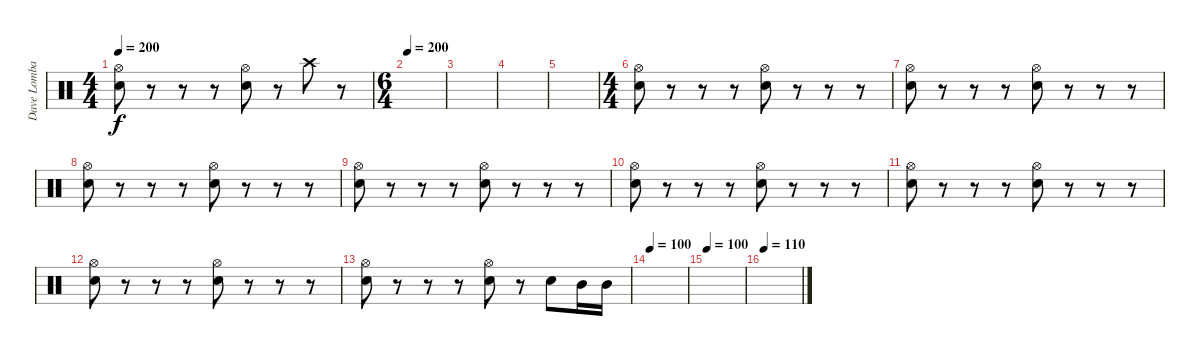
\track ("Dave Lombardo:" "Dave Lomba") {instrument percussion}
\staff {score}
\articulation defaults
\ts (4 4)
\tempo 200
\clef neutral
\ks c
("Hi-Hat (open)" "Electric Snare (hit)").8{dy f} r.8 r.8 r.8 ("Hi-Hat (open)" "Electric Snare (hit)").8 r.8 "Crash high (hit)".8 r.8 |
\ts (6 4)
\tempo 200
|
|
|
|
\ts (4 4)
("Hi-Hat (open)" "Electric Snare (hit)").8 r.8 r.8 r.8 ("Hi-Hat (open)" "Electric Snare (hit)").8 r.8 r.8 r.8 |
("Hi-Hat (open)" "Electric Snare (hit)").8 r.8 r.8 r.8 ("Hi-Hat (open)" "Electric Snare (hit)").8 r.8 r.8 r.8 |
("Hi-Hat (open)" "Electric Snare (hit)").8 r.8 r.8 r.8 ("Hi-Hat (open)" "Electric Snare (hit)").8 r.8 r.8 r.8 |
("Hi-Hat (open)" "Electric Snare (hit)").8 r.8 r.8 r.8 ("Hi-Hat (open)" "Electric Snare (hit)").8 r.8 r.8 r.8 |
("Hi-Hat (open)" "Electric Snare (hit)").8 r.8 r.8 r.8 ("Hi-Hat (open)" "Electric Snare (hit)").8 r.8 r.8 r.8 |
("Hi-Hat (open)" "Electric Snare (hit)").8 r.8 r.8 r.8 ("Hi-Hat (open)" "Electric Snare (hit)").8 r.8 r.8 r.8 |
("Hi-Hat (open)" "Electric Snare (hit)").8 r.8 r.8 r.8 ("Hi-Hat (open)" "Electric Snare (hit)").8 r.8 r.8 r.8 |
("Hi-Hat (open)" "Electric Snare (hit)").8 r.8 r.8 r.8 ("Hi-Hat (open)" "Electric Snare (hit)").8 r.8 "Electric Snare (hit)".8 "Mid Tom (hit)".16 "Mid Tom (hit)".16 |
\tempo 100
|
\tempo 100
|
\tempo 110
